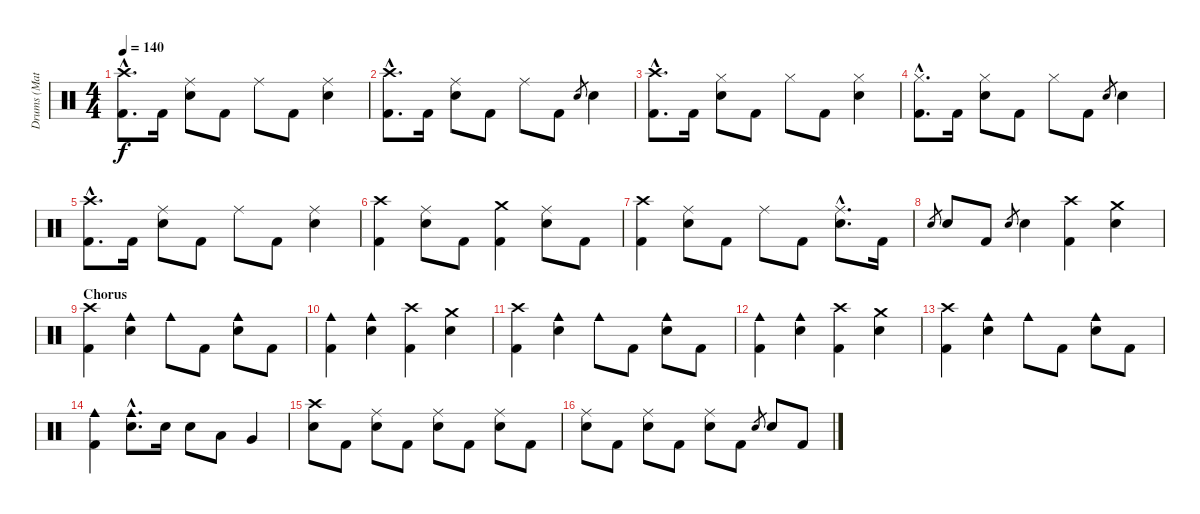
\track ("Drums (Matt)" "Drums (Mat") {instrument percussion}
\staff {score}
\articulation defaults
\ts (4 4)
\tempo 140
\clef neutral
\ks c
("Crash high (hit)"{hac} "Kick (hit) 2"{hac}).8{d dy f} "Kick (hit) 2".16 ("Ride (middle)" "Snare (hit) 2").8 "Kick (hit) 2".8 "Ride (middle)".8 "Kick (hit) 2".8 ("Ride (middle)" "Snare (hit) 2").4 |
("Crash high (hit)"{hac} "Kick (hit) 2"{hac}).8{d} "Kick (hit) 2".16 ("Ride (middle)" "Snare (hit) 2").8 "Kick (hit) 2".8 "Ride (middle)".8 "Kick (hit) 2".8 "Snare (hit) 2".8{gr} "Snare (hit) 2".4 |
("Crash high (hit)"{hac} "Kick (hit) 2"{hac}).8{d} "Kick (hit) 2".16 ("Hi-Hat (closed)" "Snare (hit) 2").8 "Kick (hit) 2".8 "Hi-Hat (closed)".8 "Kick (hit) 2".8 ("Hi-Hat (closed)" "Snare (hit) 2").4 |
("Hi-Hat (closed)"{hac} "Kick (hit) 2"{hac}).8{d} "Kick (hit) 2".16 ("Hi-Hat (closed)" "Snare (hit) 2").8 "Kick (hit) 2".8 "Hi-Hat (closed)".8 "Kick (hit) 2".8 "Snare (hit) 2".8{gr} "Snare (hit) 2".4 |
("Crash high (hit)"{hac} "Kick (hit) 2"{hac}).8{d} "Kick (hit) 2".16 ("Ride (middle)" "Snare (hit) 2").8 "Kick (hit) 2".8 "Ride (middle)".8 "Kick (hit) 2".8 ("Ride (middle)" "Snare (hit) 2").4 |
("Crash high (hit)" "Kick (hit) 2").4 ("Ride (middle)" "Snare (hit) 2").8 "Kick (hit) 2".8 ("Crash medium (hit)" "Kick (hit) 2").4 ("Ride (middle)" "Snare (hit) 2").8 "Kick (hit) 2".8 |
("Crash high (hit)" "Kick (hit) 2").4 ("Ride (middle)" "Snare (hit) 2").8 "Kick (hit) 2".8 "Ride (middle)".8 "Kick (hit) 2".8 ("Ride (middle)"{hac} "Snare (hit) 2"{hac}).8{d} "Kick (hit) 2".16 |
"Snare (hit) 2".8{gr} "Snare (hit) 2".8 "Kick (hit) 2".8 "Snare (hit) 2".8{gr} "Snare (hit) 2".4 ("Crash high (hit)" "Kick (hit) 2").4 ("Crash medium (hit)" "Snare (hit) 2").4 |
\section ("" "Chorus")
("Crash high (hit)" "Kick (hit) 2").4 ("Cowbell medium (hit)" "Snare (hit) 2").4 "Cowbell medium (hit)".8 "Kick (hit) 2".8 ("Cowbell medium (hit)" "Snare (hit) 2").8 "Kick (hit) 2".8 |
("Cowbell medium (hit)" "Kick (hit) 2").4 ("Cowbell medium (hit)" "Snare (hit) 2").4 ("Crash high (hit)" "Kick (hit) 2").4 ("Crash medium (hit)" "Snare (hit) 2").4 |
("Crash high (hit)" "Kick (hit) 2").4 ("Cowbell medium (hit)" "Snare (hit) 2").4 "Cowbell medium (hit)".8 "Kick (hit) 2".8 ("Cowbell medium (hit)" "Snare (hit) 2").8 "Kick (hit) 2".8 |
("Cowbell medium (hit)" "Kick (hit) 2").4 ("Cowbell medium (hit)" "Snare (hit) 2").4 ("Crash high (hit)" "Kick (hit) 2").4 ("Crash medium (hit)" "Snare (hit) 2").4 |
("Crash high (hit)" "Kick (hit) 2").4 ("Cowbell medium (hit)" "Snare (hit) 2").4 "Cowbell medium (hit)".8 "Kick (hit) 2".8 ("Cowbell medium (hit)" "Snare (hit) 2").8 "Kick (hit) 2".8 |
("Cowbell medium (hit)" "Kick (hit) 2").4 ("Cowbell medium (hit)"{hac} "Snare (hit) 2"{hac}).8{d} "Snare (hit) 2".16 "Snare (hit) 2".8 "Low Tom (hit)".8 "Very Low Tom (hit)".4 |
("Crash high (hit)" "Snare (hit) 2").8 "Kick (hit) 2".8 ("Ride (middle)" "Snare (hit) 2").8 "Kick (hit) 2".8 ("Ride (middle)" "Snare (hit) 2").8 "Kick (hit) 2".8 ("Ride (middle)" "Snare (hit) 2").8 "Kick (hit) 2".8 |
("Ride (middle)" "Snare (hit) 2").8 "Kick (hit) 2".8 ("Ride (middle)" "Snare (hit) 2").8 "Kick (hit) 2".8 ("Ride (middle)" "Snare (hit) 2").8 "Kick (hit) 2".8 "Snare (hit) 2".8{gr} "Snare (hit) 2".8 "Kick (hit) 2".8
